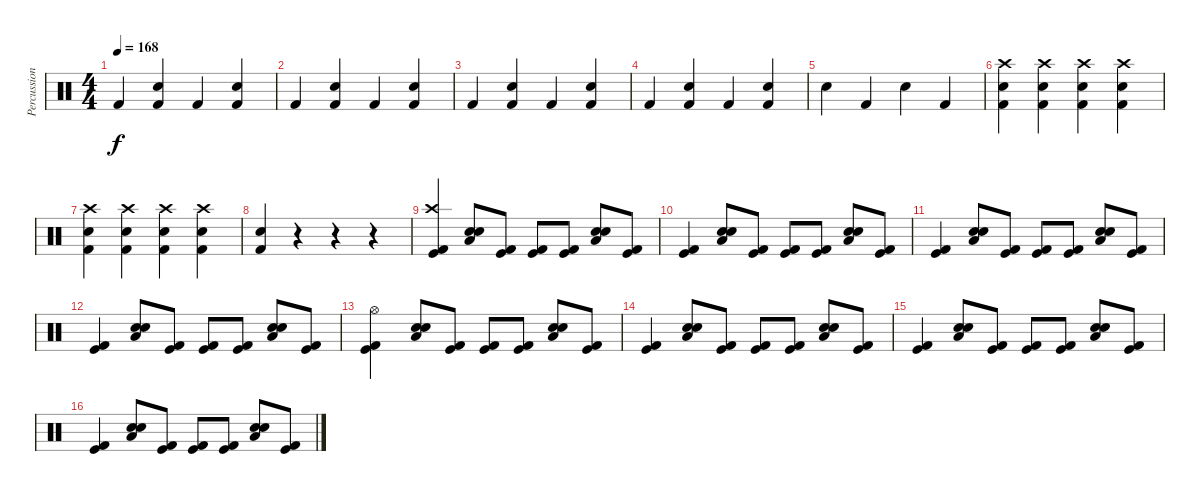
\track ("Percussion" "Percussion") {instrument percussion}
\staff {score}
\articulation defaults
\ts (4 4)
\tempo 168
\clef neutral
\ks c "Kick (hit) 2".4{dy f}
("Snare (hit) 2" "Kick (hit) 2").4 "Kick (hit) 2".4 ("Snare (hit) 2" "Kick (hit) 2").4 |
"Kick (hit) 2".4 ("Snare (hit) 2" "Kick (hit) 2").4 "Kick (hit) 2".4 ("Snare (hit) 2" "Kick (hit) 2").4 |
"Kick (hit) 2".4 ("Snare (hit) 2" "Kick (hit) 2").4 "Kick (hit) 2".4 ("Snare (hit) 2" "Kick (hit) 2").4 |
"Kick (hit) 2".4 ("Snare (hit) 2" "Kick (hit) 2").4 "Kick (hit) 2".4 ("Snare (hit) 2" "Kick (hit) 2").4 |
"Snare (hit) 2".4 "Kick (hit) 2".4 "Snare (hit) 2".4 "Kick (hit) 2".4 |
("Snare (hit) 2" "Kick (hit) 2" "Crash high (hit)").4 ("Snare (hit) 2" "Kick (hit) 2" "Crash high (hit)").4 ("Snare (hit) 2" "Kick (hit) 2" "Crash high (hit)").4 ("Snare (hit) 2" "Kick (hit) 2" "Crash high (hit)").4 |
("Snare (hit) 2" "Kick (hit) 2" "Crash high (hit)").4 ("Snare (hit) 2" "Kick (hit) 2" "Crash high (hit)").4 ("Snare (hit) 2" "Kick (hit) 2" "Crash high (hit)").4 ("Snare (hit) 2" "Kick (hit) 2" "Crash high (hit)").4 |
("Snare (hit) 2" "Kick (hit) 2").4 r.4 r.4 r.4 |
("Crash high (hit)" "Kick (hit)" "Kick (hit) 2").4 ("Electric Snare (hit)" "Low Floor Tom (hit)" "Snare (hit) 2").8 ("Kick (hit)" "Kick (hit) 2").8 ("Kick (hit)" "Kick (hit) 2").8 ("Kick (hit)" "Kick (hit) 2").8 ("Electric Snare (hit)" "Low Floor Tom (hit)" "Snare (hit) 2").8 ("Kick (hit)" "Kick (hit) 2").8 |
("Kick (hit)" "Kick (hit) 2").4 ("Electric Snare (hit)" "Low Floor Tom (hit)" "Snare (hit) 2").8 ("Kick (hit)" "Kick (hit) 2").8 ("Kick (hit)" "Kick (hit) 2").8 ("Kick (hit)" "Kick (hit) 2").8 ("Electric Snare (hit)" "Low Floor Tom (hit)" "Snare (hit) 2").8 ("Kick (hit)" "Kick (hit) 2").8 |
("Kick (hit)" "Kick (hit) 2").4 ("Electric Snare (hit)" "Low Floor Tom (hit)" "Snare (hit) 2").8 ("Kick (hit)" "Kick (hit) 2").8 ("Kick (hit)" "Kick (hit) 2").8 ("Kick (hit)" "Kick (hit) 2").8 ("Electric Snare (hit)" "Low Floor Tom (hit)" "Snare (hit) 2").8 ("Kick (hit)" "Kick (hit) 2").8 |
("Kick (hit)" "Kick (hit) 2").4 ("Electric Snare (hit)" "Low Floor Tom (hit)" "Snare (hit) 2").8 ("Kick (hit)" "Kick (hit) 2").8 ("Kick (hit)" "Kick (hit) 2").8 ("Kick (hit)" "Kick (hit) 2").8 ("Electric Snare (hit)" "Low Floor Tom (hit)" "Snare (hit) 2").8 ("Kick (hit)" "Kick (hit) 2").8 |
("Hi-Hat (open)" "Kick (hit)" "Kick (hit) 2").4 ("Electric Snare (hit)" "Low Floor Tom (hit)" "Snare (hit) 2").8 ("Kick (hit)" "Kick (hit) 2").8 ("Kick (hit)" "Kick (hit) 2").8 ("Kick (hit)" "Kick (hit) 2").8 ("Electric Snare (hit)" "Low Floor Tom (hit)" "Snare (hit) 2").8 ("Kick (hit)" "Kick (hit) 2").8 |
("Kick (hit)" "Kick (hit) 2").4 ("Electric Snare (hit)" "Low Floor Tom (hit)" "Snare (hit) 2").8 ("Kick (hit)" "Kick (hit) 2").8 ("Kick (hit)" "Kick (hit) 2").8 ("Kick (hit)" "Kick (hit) 2").8 ("Electric Snare (hit)" "Low Floor Tom (hit)" "Snare (hit) 2").8 ("Kick (hit)" "Kick (hit) 2").8 |
("Kick (hit)" "Kick (hit) 2").4 ("Electric Snare (hit)" "Low Floor Tom (hit)" "Snare (hit) 2").8 ("Kick (hit)" "Kick (hit) 2").8 ("Kick (hit)" "Kick (hit) 2").8 ("Kick (hit)" "Kick (hit) 2").8 ("Electric Snare (hit)" "Low Floor Tom (hit)" "Snare (hit) 2").8 ("Kick (hit)" "Kick (hit) 2").8 |
("Kick (hit)" "Kick (hit) 2").4 ("Electric Snare (hit)" "Low Floor Tom (hit)" "Snare (hit) 2").8 ("Kick (hit)" "Kick (hit) 2").8 ("Kick (hit)" "Kick (hit) 2").8 ("Kick (hit)" "Kick (hit) 2").8 ("Electric Snare (hit)" "Low Floor Tom (hit)" "Snare (hit) 2").8 ("Kick (hit)" "Kick (hit) 2").8
